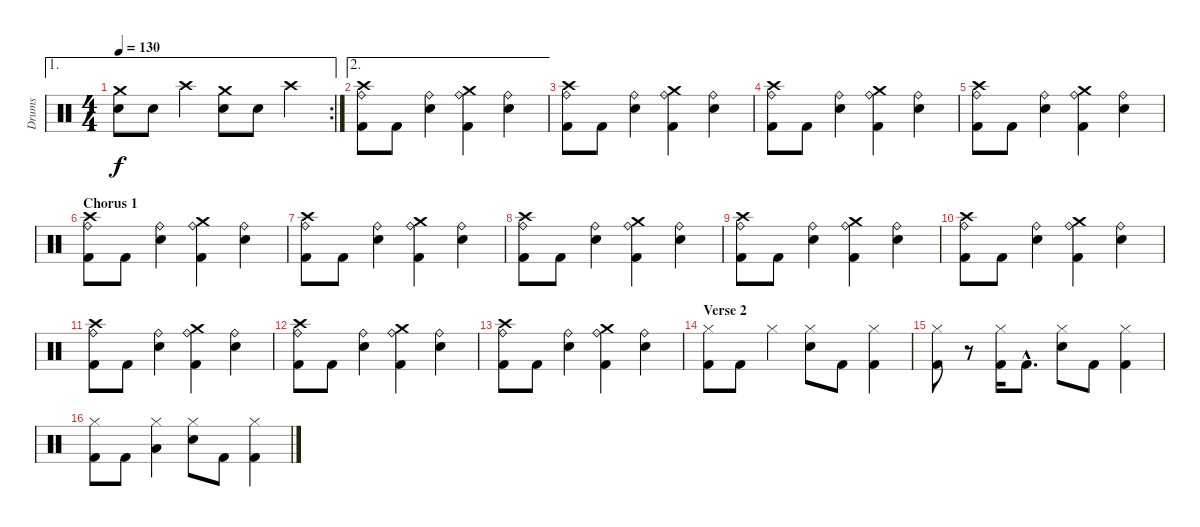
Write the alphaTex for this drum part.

\track ("Drums" "Drums") {instrument percussion}
\staff {score}
\articulation defaults
\ae 1
\rc 2
\ts (4 4)
\tempo 130
\clef neutral
\ks c
("Crash medium (hit)" "Electric Snare (hit)").8{dy f} "Electric Snare (hit)".8 "Crash high (hit)".4 ("Crash medium (hit)" "Electric Snare (hit)").8 "Electric Snare (hit)".8 "Crash high (hit)".4 |
\ae 2
("Crash high (hit)" "Ride (bell)" "Kick (hit) 2").8 "Kick (hit) 2".8 ("Ride (bell)" "Electric Snare (hit)").4 ("Crash medium (hit)" "Ride (bell)" "Kick (hit) 2").4 ("Ride (bell)" "Electric Snare (hit)").4 |
("Crash high (hit)" "Ride (bell)" "Kick (hit) 2").8 "Kick (hit) 2".8 ("Ride (bell)" "Electric Snare (hit)").4 ("Crash medium (hit)" "Ride (bell)" "Kick (hit) 2").4 ("Ride (bell)" "Electric Snare (hit)").4 |
("Crash high (hit)" "Ride (bell)" "Kick (hit) 2").8 "Kick (hit) 2".8 ("Ride (bell)" "Electric Snare (hit)").4 ("Crash medium (hit)" "Ride (bell)" "Kick (hit) 2").4 ("Ride (bell)" "Electric Snare (hit)").4 |
("Crash high (hit)" "Ride (bell)" "Kick (hit) 2").8 "Kick (hit) 2".8 ("Ride (bell)" "Electric Snare (hit)").4 ("Crash medium (hit)" "Ride (bell)" "Kick (hit) 2").4 ("Ride (bell)" "Electric Snare (hit)").4 |
\section ("" "Chorus 1")
("Crash high (hit)" "Ride (bell)" "Kick (hit) 2").8 "Kick (hit) 2".8 ("Ride (bell)" "Electric Snare (hit)").4 ("Crash medium (hit)" "Ride (bell)" "Kick (hit) 2").4 ("Ride (bell)" "Electric Snare (hit)").4 |
("Crash high (hit)" "Ride (bell)" "Kick (hit) 2").8 "Kick (hit) 2".8 ("Ride (bell)" "Electric Snare (hit)").4 ("Crash medium (hit)" "Ride (bell)" "Kick (hit) 2").4 ("Ride (bell)" "Electric Snare (hit)").4 |
("Crash high (hit)" "Ride (bell)" "Kick (hit) 2").8 "Kick (hit) 2".8 ("Ride (bell)" "Electric Snare (hit)").4 ("Crash medium (hit)" "Ride (bell)" "Kick (hit) 2").4 ("Ride (bell)" "Electric Snare (hit)").4 |
("Crash high (hit)" "Ride (bell)" "Kick (hit) 2").8 "Kick (hit) 2".8 ("Ride (bell)" "Electric Snare (hit)").4 ("Crash medium (hit)" "Ride (bell)" "Kick (hit) 2").4 ("Ride (bell)" "Electric Snare (hit)").4 |
("Crash high (hit)" "Ride (bell)" "Kick (hit) 2").8 "Kick (hit) 2".8 ("Ride (bell)" "Electric Snare (hit)").4 ("Crash medium (hit)" "Ride (bell)" "Kick (hit) 2").4 ("Ride (bell)" "Electric Snare (hit)").4 |
("Crash high (hit)" "Ride (bell)" "Kick (hit) 2").8 "Kick (hit) 2".8 ("Ride (bell)" "Electric Snare (hit)").4 ("Crash medium (hit)" "Ride (bell)" "Kick (hit) 2").4 ("Ride (bell)" "Electric Snare (hit)").4 |
("Crash high (hit)" "Ride (bell)" "Kick (hit) 2").8 "Kick (hit) 2".8 ("Ride (bell)" "Electric Snare (hit)").4 ("Crash medium (hit)" "Ride (bell)" "Kick (hit) 2").4 ("Ride (bell)" "Electric Snare (hit)").4 |
("Crash high (hit)" "Ride (bell)" "Kick (hit) 2").8 "Kick (hit) 2".8 ("Ride (bell)" "Electric Snare (hit)").4 ("Crash medium (hit)" "Ride (bell)" "Kick (hit) 2").4 ("Ride (bell)" "Electric Snare (hit)").4 |
\section ("" "Verse 2")
("Hi-Hat (closed)" "Kick (hit) 2").8 "Kick (hit) 2".8 "Hi-Hat (closed)".4 ("Hi-Hat (closed)" "Electric Snare (hit)").8 "Kick (hit) 2".8 ("Hi-Hat (closed)" "Kick (hit) 2").4 |
("Hi-Hat (closed)" "Kick (hit) 2").8 r.8 ("Hi-Hat (closed)" "Kick (hit) 2").16 "Kick (hit) 2"{hac}.8{d} ("Hi-Hat (closed)" "Electric Snare (hit)").8 "Kick (hit) 2".8 ("Hi-Hat (closed)" "Kick (hit) 2").4 |
("Hi-Hat (closed)" "Kick (hit) 2").8 "Kick (hit) 2".8 ("Hi-Hat (closed)" "Low Tom (hit)").4 ("Hi-Hat (closed)" "Electric Snare (hit)").8 "Kick (hit) 2".8 ("Hi-Hat (closed)" "Kick (hit) 2").4
